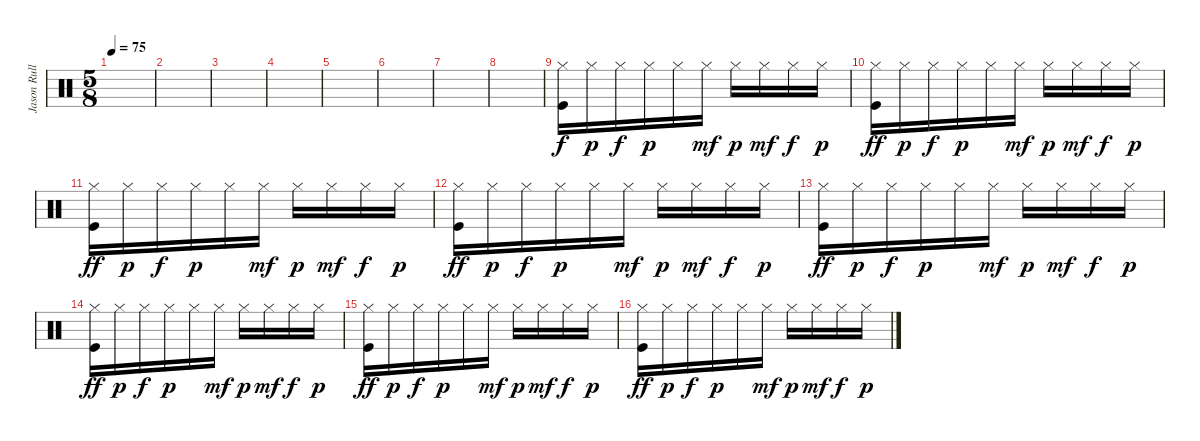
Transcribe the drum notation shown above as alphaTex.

\track ("Jason Rullo - Batterie" "Jason Rull") {instrument percussion}
\staff {score}
\articulation defaults
\ts (5 8)
\tempo 75
\clef neutral
\ks c
|
|
|
|
|
|
|
|
("Hi-Hat (closed)" "Kick (hit)").16 "Hi-Hat (closed)".16{dy p} "Hi-Hat (closed)".16{dy f} "Hi-Hat (closed)".16{dy p} "Hi-Hat (closed)".16 "Hi-Hat (closed)".16{dy mf} "Hi-Hat (closed)".16{dy p} "Hi-Hat (closed)".16{dy mf} "Hi-Hat (closed)".16{dy f} "Hi-Hat (closed)".16{dy p} |
("Hi-Hat (closed)" "Kick (hit)").16{dy ff} "Hi-Hat (closed)".16{dy p} "Hi-Hat (closed)".16{dy f} "Hi-Hat (closed)".16{dy p} "Hi-Hat (closed)".16 "Hi-Hat (closed)".16{dy mf} "Hi-Hat (closed)".16{dy p} "Hi-Hat (closed)".16{dy mf} "Hi-Hat (closed)".16{dy f} "Hi-Hat (closed)".16{dy p} |
("Hi-Hat (closed)" "Kick (hit)").16{dy ff} "Hi-Hat (closed)".16{dy p} "Hi-Hat (closed)".16{dy f} "Hi-Hat (closed)".16{dy p} "Hi-Hat (closed)".16 "Hi-Hat (closed)".16{dy mf} "Hi-Hat (closed)".16{dy p} "Hi-Hat (closed)".16{dy mf} "Hi-Hat (closed)".16{dy f} "Hi-Hat (closed)".16{dy p} |
("Hi-Hat (closed)" "Kick (hit)").16{dy ff} "Hi-Hat (closed)".16{dy p} "Hi-Hat (closed)".16{dy f} "Hi-Hat (closed)".16{dy p} "Hi-Hat (closed)".16 "Hi-Hat (closed)".16{dy mf} "Hi-Hat (closed)".16{dy p} "Hi-Hat (closed)".16{dy mf} "Hi-Hat (closed)".16{dy f} "Hi-Hat (closed)".16{dy p} |
("Hi-Hat (closed)" "Kick (hit)").16{dy ff} "Hi-Hat (closed)".16{dy p} "Hi-Hat (closed)".16{dy f} "Hi-Hat (closed)".16{dy p} "Hi-Hat (closed)".16 "Hi-Hat (closed)".16{dy mf} "Hi-Hat (closed)".16{dy p} "Hi-Hat (closed)".16{dy mf} "Hi-Hat (closed)".16{dy f} "Hi-Hat (closed)".16{dy p} |
("Hi-Hat (closed)" "Kick (hit)").16{dy ff} "Hi-Hat (closed)".16{dy p} "Hi-Hat (closed)".16{dy f} "Hi-Hat (closed)".16{dy p} "Hi-Hat (closed)".16 "Hi-Hat (closed)".16{dy mf} "Hi-Hat (closed)".16{dy p} "Hi-Hat (closed)".16{dy mf} "Hi-Hat (closed)".16{dy f} "Hi-Hat (closed)".16{dy p} |
("Hi-Hat (closed)" "Kick (hit)").16{dy ff} "Hi-Hat (closed)".16{dy p} "Hi-Hat (closed)".16{dy f} "Hi-Hat (closed)".16{dy p} "Hi-Hat (closed)".16 "Hi-Hat (closed)".16{dy mf} "Hi-Hat (closed)".16{dy p} "Hi-Hat (closed)".16{dy mf} "Hi-Hat (closed)".16{dy f} "Hi-Hat (closed)".16{dy p} |
("Hi-Hat (closed)" "Kick (hit)").16{dy ff} "Hi-Hat (closed)".16{dy p} "Hi-Hat (closed)".16{dy f} "Hi-Hat (closed)".16{dy p} "Hi-Hat (closed)".16 "Hi-Hat (closed)".16{dy mf} "Hi-Hat (closed)".16{dy p} "Hi-Hat (closed)".16{dy mf} "Hi-Hat (closed)".16{dy f} "Hi-Hat (closed)".16{dy p}
